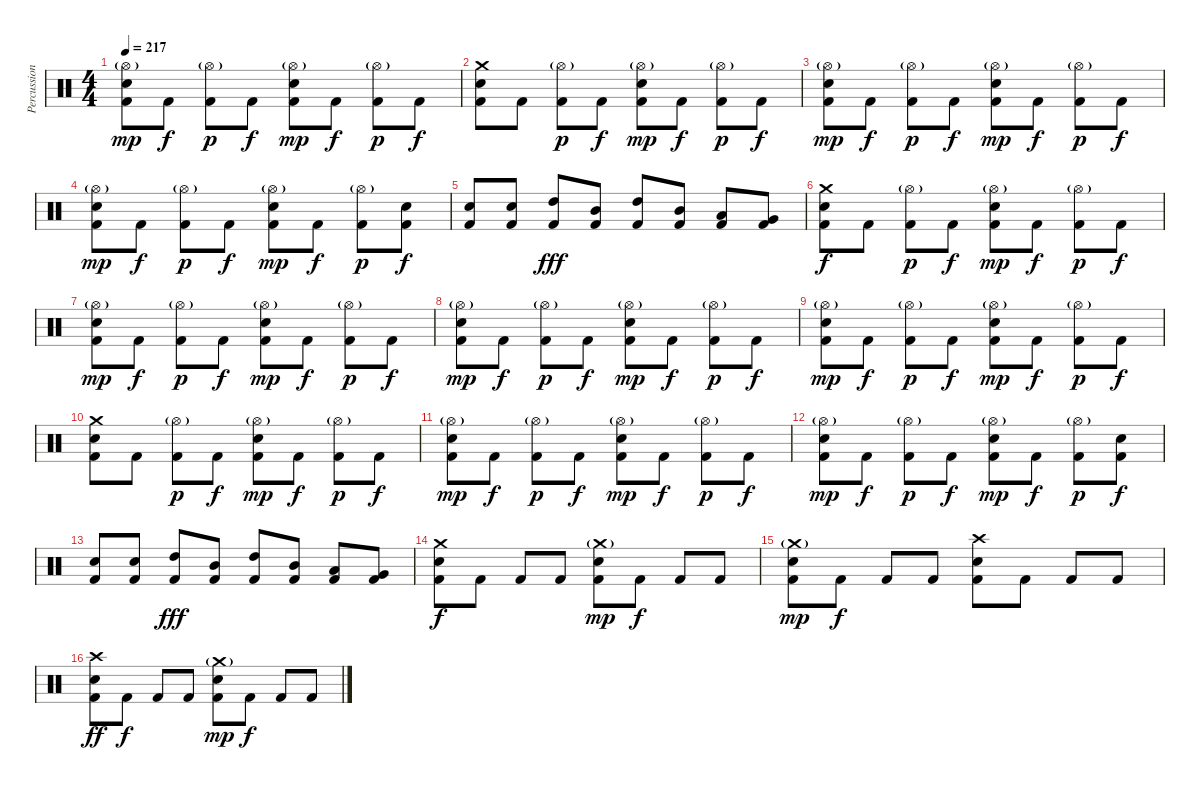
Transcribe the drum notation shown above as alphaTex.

\track ("Percussion" "Percussion") {instrument percussion}
\staff {score}
\articulation defaults
\ts (4 4)
\tempo 217
\clef neutral
\ks c
("Hi-Hat (open)"{g} "Electric Snare (hit)" "Kick (hit) 2").8{dy mp} "Kick (hit) 2".8{dy f} ("Hi-Hat (open)"{g} "Kick (hit) 2").8{dy p} "Kick (hit) 2".8{dy f} ("Hi-Hat (open)"{g} "Electric Snare (hit)" "Kick (hit) 2").8{dy mp} "Kick (hit) 2".8{dy f} ("Hi-Hat (open)"{g} "Kick (hit) 2").8{dy p} "Kick (hit) 2".8{dy f} |
("Crash medium (hit)" "Electric Snare (hit)" "Kick (hit) 2").8 "Kick (hit) 2".8 ("Hi-Hat (open)"{g} "Kick (hit) 2").8{dy p} "Kick (hit) 2".8{dy f} ("Hi-Hat (open)"{g} "Electric Snare (hit)" "Kick (hit) 2").8{dy mp} "Kick (hit) 2".8{dy f} ("Hi-Hat (open)"{g} "Kick (hit) 2").8{dy p} "Kick (hit) 2".8{dy f} |
("Hi-Hat (open)"{g} "Electric Snare (hit)" "Kick (hit) 2").8{dy mp} "Kick (hit) 2".8{dy f} ("Hi-Hat (open)"{g} "Kick (hit) 2").8{dy p} "Kick (hit) 2".8{dy f} ("Hi-Hat (open)"{g} "Electric Snare (hit)" "Kick (hit) 2").8{dy mp} "Kick (hit) 2".8{dy f} ("Hi-Hat (open)"{g} "Kick (hit) 2").8{dy p} "Kick (hit) 2".8{dy f} |
("Hi-Hat (open)"{g} "Electric Snare (hit)" "Kick (hit) 2").8{dy mp} "Kick (hit) 2".8{dy f} ("Hi-Hat (open)"{g} "Kick (hit) 2").8{dy p} "Kick (hit) 2".8{dy f} ("Hi-Hat (open)"{g} "Electric Snare (hit)" "Kick (hit) 2").8{dy mp} "Kick (hit) 2".8{dy f} ("Hi-Hat (open)"{g} "Kick (hit) 2").8{dy p} ("Electric Snare (hit)" "Kick (hit) 2").8{dy f} |
("Electric Snare (hit)" "Kick (hit) 2").8 ("Electric Snare (hit)" "Kick (hit) 2").8 ("High Tom (hit)" "Kick (hit) 2").8{dy fff} ("Mid Tom (hit)" "Kick (hit) 2").8 ("High Tom (hit)" "Kick (hit) 2").8 ("Mid Tom (hit)" "Kick (hit) 2").8 ("Low Tom (hit)" "Kick (hit) 2").8 ("Very Low Tom (hit)" "Kick (hit) 2").8 |
("Crash medium (hit)" "Electric Snare (hit)" "Kick (hit) 2").8{dy f} "Kick (hit) 2".8 ("Hi-Hat (open)"{g} "Kick (hit) 2").8{dy p} "Kick (hit) 2".8{dy f} ("Hi-Hat (open)"{g} "Electric Snare (hit)" "Kick (hit) 2").8{dy mp} "Kick (hit) 2".8{dy f} ("Hi-Hat (open)"{g} "Kick (hit) 2").8{dy p} "Kick (hit) 2".8{dy f} |
("Hi-Hat (open)"{g} "Electric Snare (hit)" "Kick (hit) 2").8{dy mp} "Kick (hit) 2".8{dy f} ("Hi-Hat (open)"{g} "Kick (hit) 2").8{dy p} "Kick (hit) 2".8{dy f} ("Hi-Hat (open)"{g} "Electric Snare (hit)" "Kick (hit) 2").8{dy mp} "Kick (hit) 2".8{dy f} ("Hi-Hat (open)"{g} "Kick (hit) 2").8{dy p} "Kick (hit) 2".8{dy f} |
("Hi-Hat (open)"{g} "Electric Snare (hit)" "Kick (hit) 2").8{dy mp} "Kick (hit) 2".8{dy f} ("Hi-Hat (open)"{g} "Kick (hit) 2").8{dy p} "Kick (hit) 2".8{dy f} ("Hi-Hat (open)"{g} "Electric Snare (hit)" "Kick (hit) 2").8{dy mp} "Kick (hit) 2".8{dy f} ("Hi-Hat (open)"{g} "Kick (hit) 2").8{dy p} "Kick (hit) 2".8{dy f} |
("Hi-Hat (open)"{g} "Electric Snare (hit)" "Kick (hit) 2").8{dy mp} "Kick (hit) 2".8{dy f} ("Hi-Hat (open)"{g} "Kick (hit) 2").8{dy p} "Kick (hit) 2".8{dy f} ("Hi-Hat (open)"{g} "Electric Snare (hit)" "Kick (hit) 2").8{dy mp} "Kick (hit) 2".8{dy f} ("Hi-Hat (open)"{g} "Kick (hit) 2").8{dy p} "Kick (hit) 2".8{dy f} |
("Crash medium (hit)" "Electric Snare (hit)" "Kick (hit) 2").8 "Kick (hit) 2".8 ("Hi-Hat (open)"{g} "Kick (hit) 2").8{dy p} "Kick (hit) 2".8{dy f} ("Hi-Hat (open)"{g} "Electric Snare (hit)" "Kick (hit) 2").8{dy mp} "Kick (hit) 2".8{dy f} ("Hi-Hat (open)"{g} "Kick (hit) 2").8{dy p} "Kick (hit) 2".8{dy f} |
("Hi-Hat (open)"{g} "Electric Snare (hit)" "Kick (hit) 2").8{dy mp} "Kick (hit) 2".8{dy f} ("Hi-Hat (open)"{g} "Kick (hit) 2").8{dy p} "Kick (hit) 2".8{dy f} ("Hi-Hat (open)"{g} "Electric Snare (hit)" "Kick (hit) 2").8{dy mp} "Kick (hit) 2".8{dy f} ("Hi-Hat (open)"{g} "Kick (hit) 2").8{dy p} "Kick (hit) 2".8{dy f} |
("Hi-Hat (open)"{g} "Electric Snare (hit)" "Kick (hit) 2").8{dy mp} "Kick (hit) 2".8{dy f} ("Hi-Hat (open)"{g} "Kick (hit) 2").8{dy p} "Kick (hit) 2".8{dy f} ("Hi-Hat (open)"{g} "Electric Snare (hit)" "Kick (hit) 2").8{dy mp} "Kick (hit) 2".8{dy f} ("Hi-Hat (open)"{g} "Kick (hit) 2").8{dy p} ("Electric Snare (hit)" "Kick (hit) 2").8{dy f} |
("Electric Snare (hit)" "Kick (hit) 2").8 ("Electric Snare (hit)" "Kick (hit) 2").8 ("High Tom (hit)" "Kick (hit) 2").8{dy fff} ("Mid Tom (hit)" "Kick (hit) 2").8 ("High Tom (hit)" "Kick (hit) 2").8 ("Mid Tom (hit)" "Kick (hit) 2").8 ("Low Tom (hit)" "Kick (hit) 2").8 ("Very Low Tom (hit)" "Kick (hit) 2").8 |
("Crash medium (hit)" "Electric Snare (hit)" "Kick (hit) 2").8{dy f} "Kick (hit) 2".8 "Kick (hit) 2".8 "Kick (hit) 2".8 ("Crash medium (hit)"{g} "Electric Snare (hit)" "Kick (hit) 2").8{dy mp} "Kick (hit) 2".8{dy f} "Kick (hit) 2".8 "Kick (hit) 2".8 |
("Crash medium (hit)"{g} "Electric Snare (hit)" "Kick (hit) 2").8{dy mp} "Kick (hit) 2".8{dy f} "Kick (hit) 2".8 "Kick (hit) 2".8 ("Crash high (hit)" "Electric Snare (hit)" "Kick (hit) 2").8 "Kick (hit) 2".8 "Kick (hit) 2".8 "Kick (hit) 2".8 |
("Crash high (hit)" "Electric Snare (hit)" "Kick (hit) 2").8{dy ff} "Kick (hit) 2".8{dy f} "Kick (hit) 2".8 "Kick (hit) 2".8 ("Crash medium (hit)"{g} "Electric Snare (hit)" "Kick (hit) 2").8{dy mp} "Kick (hit) 2".8{dy f} "Kick (hit) 2".8 "Kick (hit) 2".8
